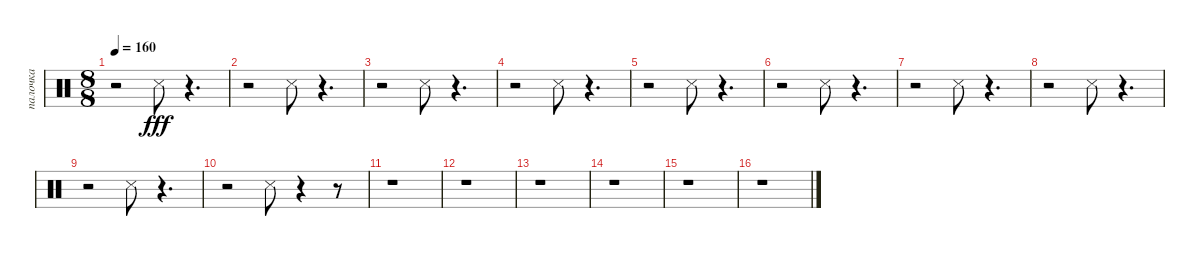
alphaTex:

\track ("палочка" "палочка") {instrument percussion}
\staff {score}
\articulation defaults
\ts (8 8)
\tempo 160
\clef neutral
\ks c
r.2{dy fff} "Snare (side stick) 3".8 r.4{d} |
r.2 "Snare (side stick) 3".8 r.4{d} |
r.2 "Snare (side stick) 3".8 r.4{d} |
r.2 "Snare (side stick) 3".8 r.4{d} |
r.2 "Snare (side stick) 3".8 r.4{d} |
r.2 "Snare (side stick) 3".8 r.4{d} |
r.2 "Snare (side stick) 3".8 r.4{d} |
r.2 "Snare (side stick) 3".8 r.4{d} |
r.2 "Snare (side stick) 3".8 r.4{d} |
r.2 "Snare (side stick) 3".8 r.4 r.8 |
r.1 |
r.1 |
r.1 |
r.1 |
r.1 |
r.1
